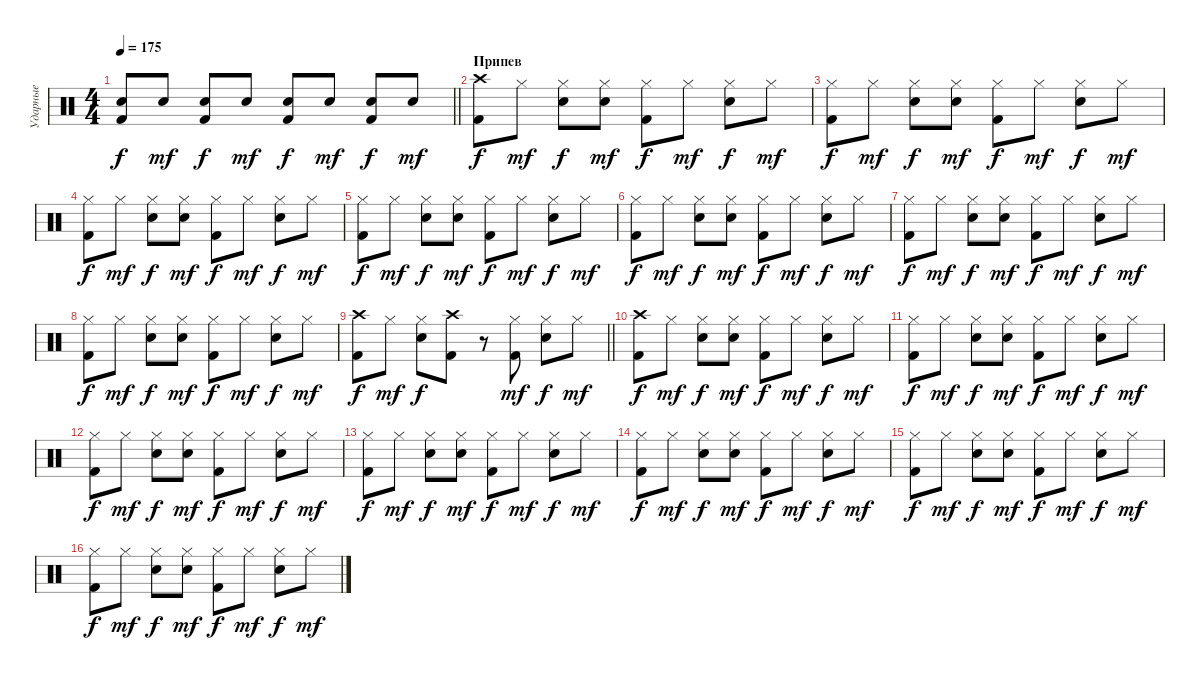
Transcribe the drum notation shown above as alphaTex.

\track ("Ударные" "Ударные") {instrument percussion}
\staff {score}
\articulation defaults
\ts (4 4)
\tempo 175
\clef neutral
\barLineRight lightlight
\ks c
("Snare (hit) 2" "Kick (hit) 2").8{dy f} "Snare (hit) 2".8{dy mf} ("Snare (hit) 2" "Kick (hit) 2").8{dy f} "Snare (hit) 2".8{dy mf} ("Snare (hit) 2" "Kick (hit) 2").8{dy f} "Snare (hit) 2".8{dy mf} ("Snare (hit) 2" "Kick (hit) 2").8{dy f} "Snare (hit) 2".8{dy mf} |
\section ("" "Припев")
("Crash high (hit)" "Kick (hit) 2").8{dy f} "Hi-Hat (closed)".8{dy mf} ("Hi-Hat (closed)" "Snare (hit) 2").8{dy f} ("Hi-Hat (closed)" "Snare (hit) 2").8{dy mf} ("Hi-Hat (closed)" "Kick (hit) 2").8{dy f} "Hi-Hat (closed)".8{dy mf} ("Hi-Hat (closed)" "Snare (hit) 2").8{dy f} "Hi-Hat (closed)".8{dy mf} |
("Hi-Hat (closed)" "Kick (hit) 2").8{dy f} "Hi-Hat (closed)".8{dy mf} ("Hi-Hat (closed)" "Snare (hit) 2").8{dy f} ("Hi-Hat (closed)" "Snare (hit) 2").8{dy mf} ("Hi-Hat (closed)" "Kick (hit) 2").8{dy f} "Hi-Hat (closed)".8{dy mf} ("Hi-Hat (closed)" "Snare (hit) 2").8{dy f} "Hi-Hat (closed)".8{dy mf} |
("Hi-Hat (closed)" "Kick (hit) 2").8{dy f} "Hi-Hat (closed)".8{dy mf} ("Hi-Hat (closed)" "Snare (hit) 2").8{dy f} ("Hi-Hat (closed)" "Snare (hit) 2").8{dy mf} ("Hi-Hat (closed)" "Kick (hit) 2").8{dy f} "Hi-Hat (closed)".8{dy mf} ("Hi-Hat (closed)" "Snare (hit) 2").8{dy f} "Hi-Hat (closed)".8{dy mf} |
("Hi-Hat (closed)" "Kick (hit) 2").8{dy f} "Hi-Hat (closed)".8{dy mf} ("Hi-Hat (closed)" "Snare (hit) 2").8{dy f} ("Hi-Hat (closed)" "Snare (hit) 2").8{dy mf} ("Hi-Hat (closed)" "Kick (hit) 2").8{dy f} "Hi-Hat (closed)".8{dy mf} ("Hi-Hat (closed)" "Snare (hit) 2").8{dy f} "Hi-Hat (closed)".8{dy mf} |
("Hi-Hat (closed)" "Kick (hit) 2").8{dy f} "Hi-Hat (closed)".8{dy mf} ("Hi-Hat (closed)" "Snare (hit) 2").8{dy f} ("Hi-Hat (closed)" "Snare (hit) 2").8{dy mf} ("Hi-Hat (closed)" "Kick (hit) 2").8{dy f} "Hi-Hat (closed)".8{dy mf} ("Hi-Hat (closed)" "Snare (hit) 2").8{dy f} "Hi-Hat (closed)".8{dy mf} |
("Hi-Hat (closed)" "Kick (hit) 2").8{dy f} "Hi-Hat (closed)".8{dy mf} ("Hi-Hat (closed)" "Snare (hit) 2").8{dy f} ("Hi-Hat (closed)" "Snare (hit) 2").8{dy mf} ("Hi-Hat (closed)" "Kick (hit) 2").8{dy f} "Hi-Hat (closed)".8{dy mf} ("Hi-Hat (closed)" "Snare (hit) 2").8{dy f} "Hi-Hat (closed)".8{dy mf} |
("Hi-Hat (closed)" "Kick (hit) 2").8{dy f} "Hi-Hat (closed)".8{dy mf} ("Hi-Hat (closed)" "Snare (hit) 2").8{dy f} ("Hi-Hat (closed)" "Snare (hit) 2").8{dy mf} ("Hi-Hat (closed)" "Kick (hit) 2").8{dy f} "Hi-Hat (closed)".8{dy mf} ("Hi-Hat (closed)" "Snare (hit) 2").8{dy f} "Hi-Hat (closed)".8{dy mf} |
\barLineRight lightlight
("Crash high (hit)" "Kick (hit) 2").8{dy f} "Hi-Hat (closed)".8{dy mf} ("Hi-Hat (closed)" "Snare (hit) 2").8{dy f} ("Crash high (hit)" "Kick (hit) 2").8 r.8 ("Hi-Hat (closed)" "Kick (hit) 2").8{dy mf} ("Hi-Hat (closed)" "Snare (hit) 2").8{dy f} "Hi-Hat (closed)".8{dy mf} |
\section ("" "")
("Crash high (hit)" "Kick (hit) 2").8{dy f} "Hi-Hat (closed)".8{dy mf} ("Hi-Hat (closed)" "Snare (hit) 2").8{dy f} ("Hi-Hat (closed)" "Snare (hit) 2").8{dy mf} ("Hi-Hat (closed)" "Kick (hit) 2").8{dy f} "Hi-Hat (closed)".8{dy mf} ("Hi-Hat (closed)" "Snare (hit) 2").8{dy f} "Hi-Hat (closed)".8{dy mf} |
("Hi-Hat (closed)" "Kick (hit) 2").8{dy f} "Hi-Hat (closed)".8{dy mf} ("Hi-Hat (closed)" "Snare (hit) 2").8{dy f} ("Hi-Hat (closed)" "Snare (hit) 2").8{dy mf} ("Hi-Hat (closed)" "Kick (hit) 2").8{dy f} "Hi-Hat (closed)".8{dy mf} ("Hi-Hat (closed)" "Snare (hit) 2").8{dy f} "Hi-Hat (closed)".8{dy mf} |
("Hi-Hat (closed)" "Kick (hit) 2").8{dy f} "Hi-Hat (closed)".8{dy mf} ("Hi-Hat (closed)" "Snare (hit) 2").8{dy f} ("Hi-Hat (closed)" "Snare (hit) 2").8{dy mf} ("Hi-Hat (closed)" "Kick (hit) 2").8{dy f} "Hi-Hat (closed)".8{dy mf} ("Hi-Hat (closed)" "Snare (hit) 2").8{dy f} "Hi-Hat (closed)".8{dy mf} |
("Hi-Hat (closed)" "Kick (hit) 2").8{dy f} "Hi-Hat (closed)".8{dy mf} ("Hi-Hat (closed)" "Snare (hit) 2").8{dy f} ("Hi-Hat (closed)" "Snare (hit) 2").8{dy mf} ("Hi-Hat (closed)" "Kick (hit) 2").8{dy f} "Hi-Hat (closed)".8{dy mf} ("Hi-Hat (closed)" "Snare (hit) 2").8{dy f} "Hi-Hat (closed)".8{dy mf} |
("Hi-Hat (closed)" "Kick (hit) 2").8{dy f} "Hi-Hat (closed)".8{dy mf} ("Hi-Hat (closed)" "Snare (hit) 2").8{dy f} ("Hi-Hat (closed)" "Snare (hit) 2").8{dy mf} ("Hi-Hat (closed)" "Kick (hit) 2").8{dy f} "Hi-Hat (closed)".8{dy mf} ("Hi-Hat (closed)" "Snare (hit) 2").8{dy f} "Hi-Hat (closed)".8{dy mf} |
("Hi-Hat (closed)" "Kick (hit) 2").8{dy f} "Hi-Hat (closed)".8{dy mf} ("Hi-Hat (closed)" "Snare (hit) 2").8{dy f} ("Hi-Hat (closed)" "Snare (hit) 2").8{dy mf} ("Hi-Hat (closed)" "Kick (hit) 2").8{dy f} "Hi-Hat (closed)".8{dy mf} ("Hi-Hat (closed)" "Snare (hit) 2").8{dy f} "Hi-Hat (closed)".8{dy mf} |
("Hi-Hat (closed)" "Kick (hit) 2").8{dy f} "Hi-Hat (closed)".8{dy mf} ("Hi-Hat (closed)" "Snare (hit) 2").8{dy f} ("Hi-Hat (closed)" "Snare (hit) 2").8{dy mf} ("Hi-Hat (closed)" "Kick (hit) 2").8{dy f} "Hi-Hat (closed)".8{dy mf} ("Hi-Hat (closed)" "Snare (hit) 2").8{dy f} "Hi-Hat (closed)".8{dy mf}
